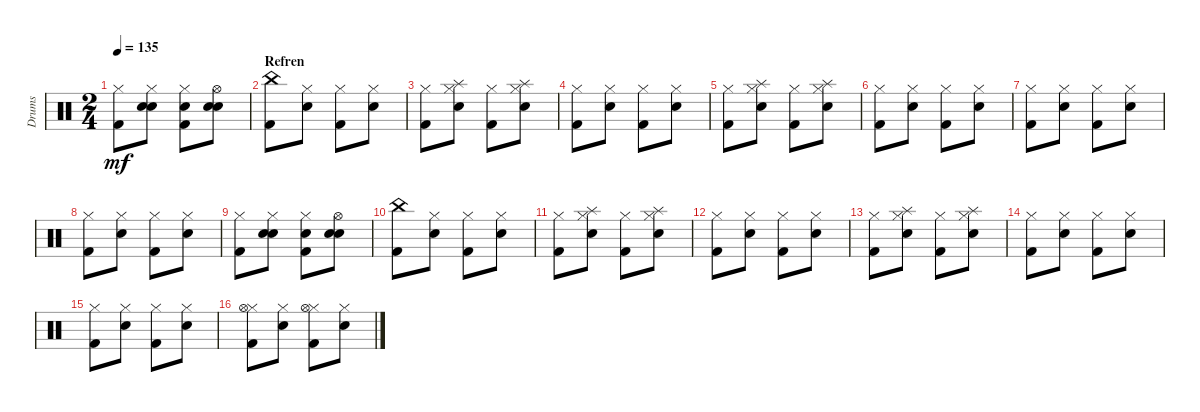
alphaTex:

\track ("Drums" "Drums") {instrument percussion}
\staff {score}
\articulation defaults
\ts (2 4)
\tempo 135
\clef neutral
\ks c
("Hi-Hat (closed)" "Kick (hit) 2").8{dy mf} ("Hi-Hat (closed)" "Electric Snare (hit)" "Hand Clap (hit)").8 ("Hi-Hat (closed)" "Hand Clap (hit)" "Kick (hit) 2").8 ("Hi-Hat (open)" "Electric Snare (hit)" "Hand Clap (hit)").8 |
\section ("" "Refren")
("China (hit)" "Kick (hit) 2").8 ("Hi-Hat (closed)" "Electric Snare (hit)").8 ("Hi-Hat (closed)" "Kick (hit) 2").8 ("Hi-Hat (closed)" "Electric Snare (hit)").8 |
("Hi-Hat (closed)" "Kick (hit) 2").8 ("Splash (hit)" "Hi-Hat (closed)" "Electric Snare (hit)").8 ("Hi-Hat (closed)" "Kick (hit) 2").8 ("Splash (hit)" "Hi-Hat (closed)" "Electric Snare (hit)").8 |
("Hi-Hat (closed)" "Kick (hit) 2").8 ("Hi-Hat (closed)" "Electric Snare (hit)").8 ("Hi-Hat (closed)" "Kick (hit) 2").8 ("Hi-Hat (closed)" "Electric Snare (hit)").8 |
("Hi-Hat (closed)" "Kick (hit) 2").8 ("Splash (hit)" "Hi-Hat (closed)" "Electric Snare (hit)").8 ("Hi-Hat (closed)" "Kick (hit) 2").8 ("Splash (hit)" "Hi-Hat (closed)" "Electric Snare (hit)").8 |
("Hi-Hat (closed)" "Kick (hit) 2").8 ("Hi-Hat (closed)" "Electric Snare (hit)").8 ("Hi-Hat (closed)" "Kick (hit) 2").8 ("Hi-Hat (closed)" "Electric Snare (hit)").8 |
("Hi-Hat (closed)" "Kick (hit) 2").8 ("Hi-Hat (closed)" "Electric Snare (hit)").8 ("Hi-Hat (closed)" "Kick (hit) 2").8 ("Hi-Hat (closed)" "Electric Snare (hit)").8 |
("Hi-Hat (closed)" "Kick (hit) 2").8 ("Hi-Hat (closed)" "Electric Snare (hit)").8 ("Hi-Hat (closed)" "Kick (hit) 2").8 ("Hi-Hat (closed)" "Electric Snare (hit)").8 |
("Hi-Hat (closed)" "Kick (hit) 2").8 ("Hi-Hat (closed)" "Electric Snare (hit)" "Hand Clap (hit)").8 ("Hi-Hat (closed)" "Hand Clap (hit)" "Kick (hit) 2").8 ("Hi-Hat (open)" "Electric Snare (hit)" "Hand Clap (hit)").8 |
("China (hit)" "Kick (hit) 2").8 ("Hi-Hat (closed)" "Electric Snare (hit)").8 ("Hi-Hat (closed)" "Kick (hit) 2").8 ("Hi-Hat (closed)" "Electric Snare (hit)").8 |
("Hi-Hat (closed)" "Kick (hit) 2").8 ("Splash (hit)" "Hi-Hat (closed)" "Electric Snare (hit)").8 ("Hi-Hat (closed)" "Kick (hit) 2").8 ("Splash (hit)" "Hi-Hat (closed)" "Electric Snare (hit)").8 |
("Hi-Hat (closed)" "Kick (hit) 2").8 ("Hi-Hat (closed)" "Electric Snare (hit)").8 ("Hi-Hat (closed)" "Kick (hit) 2").8 ("Hi-Hat (closed)" "Electric Snare (hit)").8 |
("Hi-Hat (closed)" "Kick (hit) 2").8 ("Splash (hit)" "Hi-Hat (closed)" "Electric Snare (hit)").8 ("Hi-Hat (closed)" "Kick (hit) 2").8 ("Splash (hit)" "Hi-Hat (closed)" "Electric Snare (hit)").8 |
("Hi-Hat (closed)" "Kick (hit) 2").8 ("Hi-Hat (closed)" "Electric Snare (hit)").8 ("Hi-Hat (closed)" "Kick (hit) 2").8 ("Hi-Hat (closed)" "Electric Snare (hit)").8 |
("Hi-Hat (closed)" "Kick (hit) 2").8 ("Hi-Hat (closed)" "Electric Snare (hit)").8 ("Hi-Hat (closed)" "Kick (hit) 2").8 ("Hi-Hat (closed)" "Electric Snare (hit)").8 |
("Hi-Hat (closed)" "Kick (hit) 2" "Hi-Hat (open)").8 ("Hi-Hat (closed)" "Electric Snare (hit)").8 ("Hi-Hat (closed)" "Kick (hit) 2" "Hi-Hat (open)").8 ("Hi-Hat (closed)" "Electric Snare (hit)").8
